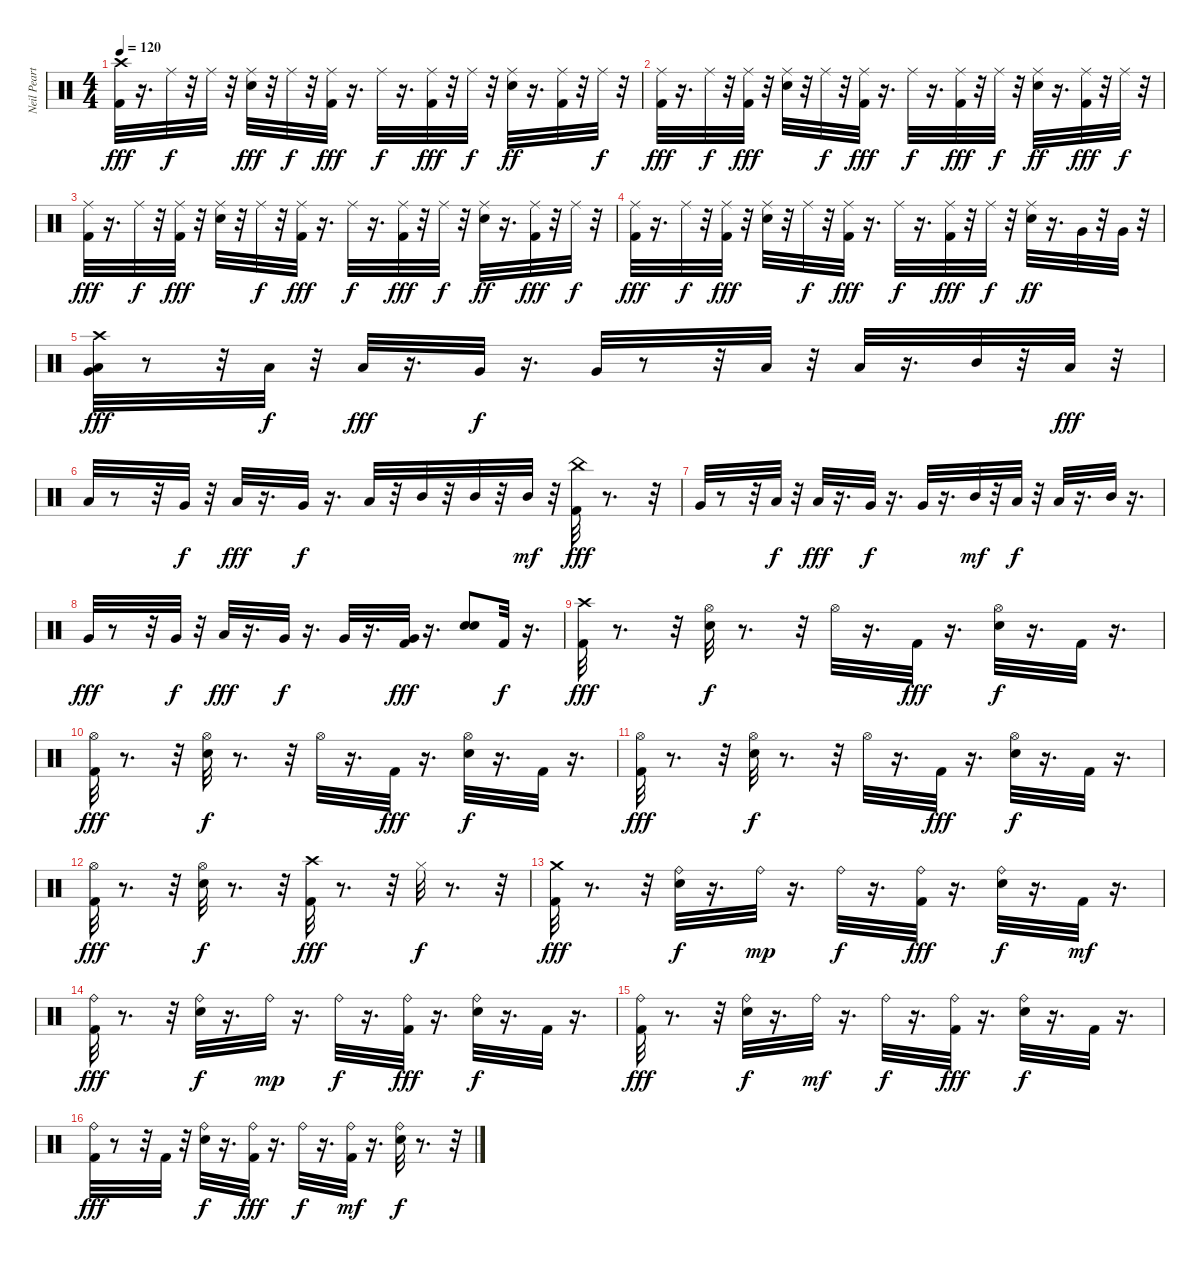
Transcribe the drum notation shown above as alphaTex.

\track ("Neil Peart" "Neil Peart") {instrument percussion}
\staff {score}
\articulation defaults
\ts (4 4)
\tempo 120
\clef neutral
\ks c
("Crash high (hit)" "Kick (hit) 2").32{dy fff} r.16{d} "Ride (middle)".32{dy f} r.32 "Ride (middle)".32 r.32 ("Ride (middle)" "Snare (hit) 2").32{dy fff} r.32 "Ride (middle)".32{dy f} r.32 ("Ride (middle)" "Kick (hit) 2").32{dy fff} r.16{d} "Ride (middle)".32{dy f} r.16{d} ("Ride (middle)" "Kick (hit) 2").32{dy fff} r.32 "Ride (middle)".32{dy f} r.32 ("Ride (middle)" "Snare (hit) 2").32{dy ff} r.16{d} ("Ride (middle)" "Kick (hit) 2").32 r.32 "Ride (middle)".32{dy f} r.32 |
("Ride (middle)" "Kick (hit) 2").32{dy fff} r.16{d} "Ride (middle)".32{dy f} r.32 ("Ride (middle)" "Kick (hit) 2").32{dy fff} r.32 ("Ride (middle)" "Snare (hit) 2").32 r.32 "Ride (middle)".32{dy f} r.32 ("Ride (middle)" "Kick (hit) 2").32{dy fff} r.16{d} "Ride (middle)".32{dy f} r.16{d} ("Ride (middle)" "Kick (hit) 2").32{dy fff} r.32 "Ride (middle)".32{dy f} r.32 ("Ride (middle)" "Snare (hit) 2").32{dy ff} r.16{d} ("Ride (middle)" "Kick (hit) 2").32{dy fff} r.32 "Ride (middle)".32{dy f} r.32 |
("Ride (middle)" "Kick (hit) 2").32{dy fff} r.16{d} "Ride (middle)".32{dy f} r.32 ("Ride (middle)" "Kick (hit) 2").32{dy fff} r.32 ("Ride (middle)" "Snare (hit) 2").32 r.32 "Ride (middle)".32{dy f} r.32 ("Ride (middle)" "Kick (hit) 2").32{dy fff} r.16{d} "Ride (middle)".32{dy f} r.16{d} ("Ride (middle)" "Kick (hit) 2").32{dy fff} r.32 "Ride (middle)".32{dy f} r.32 ("Ride (middle)" "Snare (hit) 2").32{dy ff} r.16{d} ("Ride (middle)" "Kick (hit) 2").32{dy fff} r.32 "Ride (middle)".32{dy f} r.32 |
("Ride (middle)" "Kick (hit) 2").32{dy fff} r.16{d} "Ride (middle)".32{dy f} r.32 ("Ride (middle)" "Kick (hit) 2").32{dy fff} r.32 ("Ride (middle)" "Snare (hit) 2").32 r.32 "Ride (middle)".32{dy f} r.32 ("Ride (middle)" "Kick (hit) 2").32{dy fff} r.16{d} "Ride (middle)".32{dy f} r.16{d} ("Ride (middle)" "Kick (hit) 2").32{dy fff} r.32 "Ride (middle)".32{dy f} r.32 ("Ride (middle)" "Snare (hit) 2").32{dy ff} r.16{d} "Very Low Tom (hit)".32 r.32 "Very Low Tom (hit)".32 r.32 |
("Low Floor Tom (hit)" "Crash high (hit)" "Very Low Tom (hit)").32{dy fff} r.8 r.32 "Low Floor Tom (hit)".32{dy f} r.32 "Low Floor Tom (hit)".32{dy fff} r.16{d} "Very Low Tom (hit)".32{dy f} r.16{d} "Very Low Tom (hit)".32 r.8 r.32 "Low Tom (hit)".32 r.32 "Low Tom (hit)".32 r.16{d} "Mid Tom (hit)".32 r.32 "Low Tom (hit)".32{dy fff} r.32 |
"Low Floor Tom (hit)".32 r.8 r.32 "Very Low Tom (hit)".32{dy f} r.32 "Low Floor Tom (hit)".32{dy fff} r.16{d} "Very Low Tom (hit)".32{dy f} r.16{d} "Low Tom (hit)".32 r.32 "Mid Tom (hit)".32 r.32 "Mid Tom (hit)".32 r.32 "Mid Tom (hit)".32{dy mf} r.32 ("Kick (hit) 2" "China (hit)").32{dy fff} r.8{d} r.32 |
"Very Low Tom (hit)".32 r.8 r.32 "Low Floor Tom (hit)".32{dy f} r.32 "Low Floor Tom (hit)".32{dy fff} r.16{d} "Very Low Tom (hit)".32{dy f} r.16{d} "Very Low Tom (hit)".32 r.16{d} "Mid Tom (hit)".32{dy mf} r.32 "Low Tom (hit)".32{dy f} r.32 "Low Tom (hit)".32 r.16{d} "Mid Tom (hit)".32 r.16{d} |
"Very Low Tom (hit)".32{dy fff} r.8 r.32 "Very Low Tom (hit)".32{dy f} r.32 "Low Floor Tom (hit)".32{dy fff} r.16{d} "Very Low Tom (hit)".32{dy f} r.16{d} "Very Low Tom (hit)".32 r.16{d} ("Kick (hit) 2" "Very Low Tom (hit)").32{dy fff} r.16{d} ("Snare (hit) 2" "Snare (hit) 2").8 "Kick (hit) 2".32{dy f} r.16{d} |
("Crash high (hit)" "Kick (hit) 2").32{dy fff} r.8{d} r.32 ("Hi-Hat (open)" "Snare (hit) 2").32{dy f} r.8{d} r.32 "Hi-Hat (open)".32 r.16{d} "Kick (hit) 2".32{dy fff} r.16{d} ("Hi-Hat (open)" "Snare (hit) 2").32{dy f} r.16{d} "Kick (hit) 2".32 r.16{d} |
("Hi-Hat (open)" "Kick (hit) 2").32{dy fff} r.8{d} r.32 ("Hi-Hat (open)" "Snare (hit) 2").32{dy f} r.8{d} r.32 "Hi-Hat (open)".32 r.16{d} "Kick (hit) 2".32{dy fff} r.16{d} ("Hi-Hat (open)" "Snare (hit) 2").32{dy f} r.16{d} "Kick (hit) 2".32 r.16{d} |
("Hi-Hat (open)" "Kick (hit) 2").32{dy fff} r.8{d} r.32 ("Snare (hit) 2" "Hi-Hat (open)").32{dy f} r.8{d} r.32 "Hi-Hat (open)".32 r.16{d} "Kick (hit) 2".32{dy fff} r.16{d} ("Snare (hit) 2" "Hi-Hat (open)").32{dy f} r.16{d} "Kick (hit) 2".32 r.16{d} |
("Hi-Hat (open)" "Kick (hit) 2").32{dy fff} r.8{d} r.32 ("Hi-Hat (open)" "Snare (hit) 2").32{dy f} r.8{d} r.32 ("Crash high (hit)" "Kick (hit) 2").32{dy fff} r.8{d} r.32 "Hi-Hat (closed)".32{dy f} r.8{d} r.32 |
("Crash medium (hit)" "Kick (hit) 2").32{dy fff} r.8{d} r.32 ("Ride (bell)" "Snare (hit) 2").32{dy f} r.16{d} "Ride (bell)".32{dy mp} r.16{d} "Ride (bell)".32{dy f} r.16{d} ("Ride (bell)" "Kick (hit) 2").32{dy fff} r.16{d} ("Ride (bell)" "Snare (hit) 2").32{dy f} r.16{d} "Kick (hit) 2".32{dy mf} r.16{d} |
("Ride (bell)" "Kick (hit) 2").32{dy fff} r.8{d} r.32 ("Ride (bell)" "Snare (hit) 2").32{dy f} r.16{d} "Ride (bell)".32{dy mp} r.16{d} "Ride (bell)".32{dy f} r.16{d} ("Ride (bell)" "Kick (hit) 2").32{dy fff} r.16{d} ("Ride (bell)" "Snare (hit) 2").32{dy f} r.16{d} "Kick (hit) 2".32 r.16{d} |
("Ride (bell)" "Kick (hit) 2").32{dy fff} r.8{d} r.32 ("Ride (bell)" "Snare (hit) 2").32{dy f} r.16{d} "Ride (bell)".32{dy mf} r.16{d} "Ride (bell)".32{dy f} r.16{d} ("Ride (bell)" "Kick (hit) 2").32{dy fff} r.16{d} ("Ride (bell)" "Snare (hit) 2").32{dy f} r.16{d} "Kick (hit) 2".32 r.16{d} |
("Ride (bell)" "Kick (hit) 2").32{dy fff} r.8 r.32 "Kick (hit) 2".32 r.32 ("Ride (bell)" "Snare (hit) 2").32{dy f} r.16{d} ("Ride (bell)" "Kick (hit) 2").32{dy fff} r.16{d} "Ride (bell)".32{dy f} r.16{d} ("Ride (bell)" "Kick (hit) 2").32{dy mf} r.16{d} ("Ride (bell)" "Snare (hit) 2").32{dy f} r.8{d} r.32
